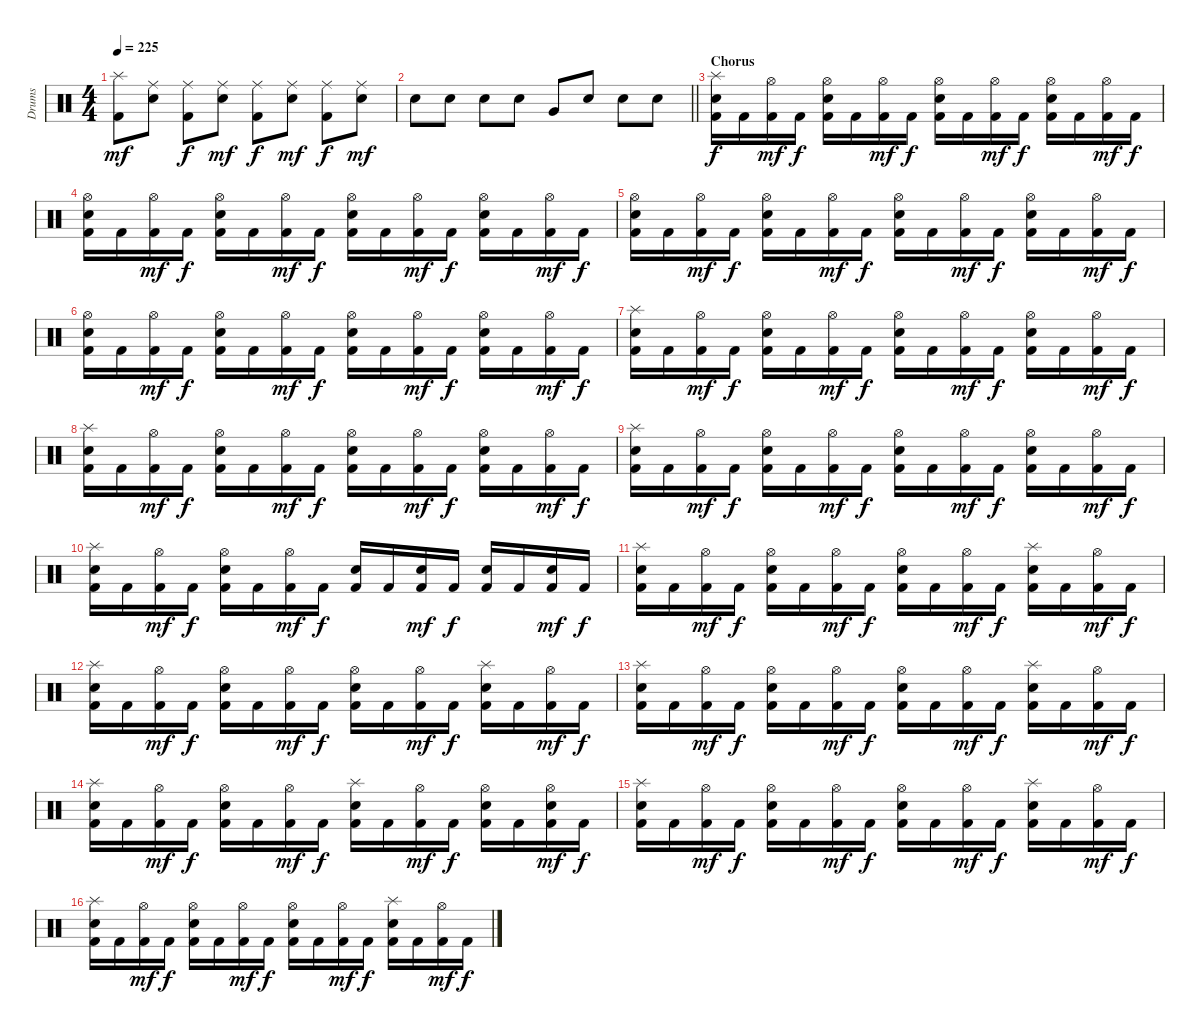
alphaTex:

\track ("Drums" "Drums") {instrument percussion}
\staff {score}
\articulation defaults
\ts (4 4)
\tempo 225
\clef neutral
\ks c
("Splash (hit)" "Kick (hit) 2").8{dy mf} ("Ride (middle)" "Snare (hit) 2").8 ("Ride (middle)" "Kick (hit) 2").8{dy f} ("Ride (middle)" "Snare (hit) 2").8{dy mf} ("Ride (middle)" "Kick (hit) 2").8{dy f} ("Ride (middle)" "Snare (hit) 2").8{dy mf} ("Ride (middle)" "Kick (hit) 2").8{dy f} ("Ride (middle)" "Snare (hit) 2").8{dy mf} |
\barLineRight lightlight "Snare (hit) 2".8 "Snare (hit) 2".8 "Snare (hit) 2".8 "Snare (hit) 2".8 "Very Low Tom (hit)".8 "Snare (hit) 2".8 "Snare (hit) 2".8 "Snare (hit) 2".8
|
\section ("" "Chorus")
("Splash (hit)" "Snare (hit) 2" "Kick (hit) 2").16{dy f} "Kick (hit) 2".16 ("Hi-Hat (open)" "Kick (hit) 2").16{dy mf} "Kick (hit) 2".16{dy f} ("Hi-Hat (open)" "Snare (hit) 2" "Kick (hit) 2").16 "Kick (hit) 2".16 ("Hi-Hat (open)" "Kick (hit) 2").16{dy mf} "Kick (hit) 2".16{dy f} ("Hi-Hat (open)" "Snare (hit) 2" "Kick (hit) 2").16 "Kick (hit) 2".16 ("Hi-Hat (open)" "Kick (hit) 2").16{dy mf} "Kick (hit) 2".16{dy f} ("Hi-Hat (open)" "Snare (hit) 2" "Kick (hit) 2").16 "Kick (hit) 2".16 ("Hi-Hat (open)" "Kick (hit) 2").16{dy mf} "Kick (hit) 2".16{dy f} |
("Hi-Hat (open)" "Snare (hit) 2" "Kick (hit) 2").16 "Kick (hit) 2".16 ("Hi-Hat (open)" "Kick (hit) 2").16{dy mf} "Kick (hit) 2".16{dy f} ("Hi-Hat (open)" "Snare (hit) 2" "Kick (hit) 2").16 "Kick (hit) 2".16 ("Hi-Hat (open)" "Kick (hit) 2").16{dy mf} "Kick (hit) 2".16{dy f} ("Hi-Hat (open)" "Snare (hit) 2" "Kick (hit) 2").16 "Kick (hit) 2".16 ("Hi-Hat (open)" "Kick (hit) 2").16{dy mf} "Kick (hit) 2".16{dy f} ("Hi-Hat (open)" "Snare (hit) 2" "Kick (hit) 2").16 "Kick (hit) 2".16 ("Hi-Hat (open)" "Kick (hit) 2").16{dy mf} "Kick (hit) 2".16{dy f} |
("Hi-Hat (open)" "Snare (hit) 2" "Kick (hit) 2").16 "Kick (hit) 2".16 ("Hi-Hat (open)" "Kick (hit) 2").16{dy mf} "Kick (hit) 2".16{dy f} ("Hi-Hat (open)" "Snare (hit) 2" "Kick (hit) 2").16 "Kick (hit) 2".16 ("Hi-Hat (open)" "Kick (hit) 2").16{dy mf} "Kick (hit) 2".16{dy f} ("Hi-Hat (open)" "Snare (hit) 2" "Kick (hit) 2").16 "Kick (hit) 2".16 ("Hi-Hat (open)" "Kick (hit) 2").16{dy mf} "Kick (hit) 2".16{dy f} ("Hi-Hat (open)" "Snare (hit) 2" "Kick (hit) 2").16 "Kick (hit) 2".16 ("Hi-Hat (open)" "Kick (hit) 2").16{dy mf} "Kick (hit) 2".16{dy f} |
("Hi-Hat (open)" "Snare (hit) 2" "Kick (hit) 2").16 "Kick (hit) 2".16 ("Hi-Hat (open)" "Kick (hit) 2").16{dy mf} "Kick (hit) 2".16{dy f} ("Hi-Hat (open)" "Snare (hit) 2" "Kick (hit) 2").16 "Kick (hit) 2".16 ("Hi-Hat (open)" "Kick (hit) 2").16{dy mf} "Kick (hit) 2".16{dy f} ("Hi-Hat (open)" "Snare (hit) 2" "Kick (hit) 2").16 "Kick (hit) 2".16 ("Hi-Hat (open)" "Kick (hit) 2").16{dy mf} "Kick (hit) 2".16{dy f} ("Hi-Hat (open)" "Snare (hit) 2" "Kick (hit) 2").16 "Kick (hit) 2".16 ("Hi-Hat (open)" "Kick (hit) 2").16{dy mf} "Kick (hit) 2".16{dy f} |
("Splash (hit)" "Snare (hit) 2" "Kick (hit) 2").16 "Kick (hit) 2".16 ("Hi-Hat (open)" "Kick (hit) 2").16{dy mf} "Kick (hit) 2".16{dy f} ("Hi-Hat (open)" "Snare (hit) 2" "Kick (hit) 2").16 "Kick (hit) 2".16 ("Hi-Hat (open)" "Kick (hit) 2").16{dy mf} "Kick (hit) 2".16{dy f} ("Hi-Hat (open)" "Snare (hit) 2" "Kick (hit) 2").16 "Kick (hit) 2".16 ("Hi-Hat (open)" "Kick (hit) 2").16{dy mf} "Kick (hit) 2".16{dy f} ("Hi-Hat (open)" "Snare (hit) 2" "Kick (hit) 2").16 "Kick (hit) 2".16 ("Hi-Hat (open)" "Kick (hit) 2").16{dy mf} "Kick (hit) 2".16{dy f} |
("Splash (hit)" "Snare (hit) 2" "Kick (hit) 2").16 "Kick (hit) 2".16 ("Hi-Hat (open)" "Kick (hit) 2").16{dy mf} "Kick (hit) 2".16{dy f} ("Hi-Hat (open)" "Snare (hit) 2" "Kick (hit) 2").16 "Kick (hit) 2".16 ("Hi-Hat (open)" "Kick (hit) 2").16{dy mf} "Kick (hit) 2".16{dy f} ("Hi-Hat (open)" "Snare (hit) 2" "Kick (hit) 2").16 "Kick (hit) 2".16 ("Hi-Hat (open)" "Kick (hit) 2").16{dy mf} "Kick (hit) 2".16{dy f} ("Hi-Hat (open)" "Snare (hit) 2" "Kick (hit) 2").16 "Kick (hit) 2".16 ("Hi-Hat (open)" "Kick (hit) 2").16{dy mf} "Kick (hit) 2".16{dy f} |
("Splash (hit)" "Snare (hit) 2" "Kick (hit) 2").16 "Kick (hit) 2".16 ("Hi-Hat (open)" "Kick (hit) 2").16{dy mf} "Kick (hit) 2".16{dy f} ("Hi-Hat (open)" "Snare (hit) 2" "Kick (hit) 2").16 "Kick (hit) 2".16 ("Hi-Hat (open)" "Kick (hit) 2").16{dy mf} "Kick (hit) 2".16{dy f} ("Hi-Hat (open)" "Snare (hit) 2" "Kick (hit) 2").16 "Kick (hit) 2".16 ("Hi-Hat (open)" "Kick (hit) 2").16{dy mf} "Kick (hit) 2".16{dy f} ("Hi-Hat (open)" "Snare (hit) 2" "Kick (hit) 2").16 "Kick (hit) 2".16 ("Hi-Hat (open)" "Kick (hit) 2").16{dy mf} "Kick (hit) 2".16{dy f} |
("Splash (hit)" "Snare (hit) 2" "Kick (hit) 2").16 "Kick (hit) 2".16 ("Hi-Hat (open)" "Kick (hit) 2").16{dy mf} "Kick (hit) 2".16{dy f} ("Hi-Hat (open)" "Snare (hit) 2" "Kick (hit) 2").16 "Kick (hit) 2".16 ("Hi-Hat (open)" "Kick (hit) 2").16{dy mf} "Kick (hit) 2".16{dy f} ("Snare (hit) 2" "Kick (hit) 2").16 "Kick (hit) 2".16 ("Snare (hit) 2" "Kick (hit) 2").16{dy mf} "Kick (hit) 2".16{dy f} ("Snare (hit) 2" "Kick (hit) 2").16 "Kick (hit) 2".16 ("Snare (hit) 2" "Kick (hit) 2").16{dy mf} "Kick (hit) 2".16{dy f} |
("Splash (hit)" "Snare (hit) 2" "Kick (hit) 2").16 "Kick (hit) 2".16 ("Hi-Hat (open)" "Kick (hit) 2").16{dy mf} "Kick (hit) 2".16{dy f} ("Hi-Hat (open)" "Snare (hit) 2" "Kick (hit) 2").16 "Kick (hit) 2".16 ("Hi-Hat (open)" "Kick (hit) 2").16{dy mf} "Kick (hit) 2".16{dy f} ("Hi-Hat (open)" "Snare (hit) 2" "Kick (hit) 2").16 "Kick (hit) 2".16 ("Hi-Hat (open)" "Kick (hit) 2").16{dy mf} "Kick (hit) 2".16{dy f} ("Splash (hit)" "Snare (hit) 2" "Kick (hit) 2").16 "Kick (hit) 2".16 ("Hi-Hat (open)" "Kick (hit) 2").16{dy mf} "Kick (hit) 2".16{dy f} |
("Splash (hit)" "Snare (hit) 2" "Kick (hit) 2").16 "Kick (hit) 2".16 ("Hi-Hat (open)" "Kick (hit) 2").16{dy mf} "Kick (hit) 2".16{dy f} ("Hi-Hat (open)" "Snare (hit) 2" "Kick (hit) 2").16 "Kick (hit) 2".16 ("Hi-Hat (open)" "Kick (hit) 2").16{dy mf} "Kick (hit) 2".16{dy f} ("Hi-Hat (open)" "Snare (hit) 2" "Kick (hit) 2").16 "Kick (hit) 2".16 ("Hi-Hat (open)" "Kick (hit) 2").16{dy mf} "Kick (hit) 2".16{dy f} ("Splash (hit)" "Snare (hit) 2" "Kick (hit) 2").16 "Kick (hit) 2".16 ("Hi-Hat (open)" "Kick (hit) 2").16{dy mf} "Kick (hit) 2".16{dy f} |
("Splash (hit)" "Snare (hit) 2" "Kick (hit) 2").16 "Kick (hit) 2".16 ("Hi-Hat (open)" "Kick (hit) 2").16{dy mf} "Kick (hit) 2".16{dy f} ("Hi-Hat (open)" "Snare (hit) 2" "Kick (hit) 2").16 "Kick (hit) 2".16 ("Hi-Hat (open)" "Kick (hit) 2").16{dy mf} "Kick (hit) 2".16{dy f} ("Hi-Hat (open)" "Snare (hit) 2" "Kick (hit) 2").16 "Kick (hit) 2".16 ("Hi-Hat (open)" "Kick (hit) 2").16{dy mf} "Kick (hit) 2".16{dy f} ("Splash (hit)" "Snare (hit) 2" "Kick (hit) 2").16 "Kick (hit) 2".16 ("Hi-Hat (open)" "Kick (hit) 2").16{dy mf} "Kick (hit) 2".16{dy f} |
("Splash (hit)" "Snare (hit) 2" "Kick (hit) 2").16 "Kick (hit) 2".16 ("Hi-Hat (open)" "Kick (hit) 2").16{dy mf} "Kick (hit) 2".16{dy f} ("Hi-Hat (open)" "Snare (hit) 2" "Kick (hit) 2").16 "Kick (hit) 2".16 ("Hi-Hat (open)" "Kick (hit) 2").16{dy mf} "Kick (hit) 2".16{dy f} ("Splash (hit)" "Snare (hit) 2" "Kick (hit) 2").16 "Kick (hit) 2".16 ("Hi-Hat (open)" "Kick (hit) 2").16{dy mf} "Kick (hit) 2".16{dy f} ("Hi-Hat (open)" "Snare (hit) 2" "Kick (hit) 2").16 "Kick (hit) 2".16 ("Hi-Hat (open)" "Snare (hit) 2" "Kick (hit) 2").16{dy mf} "Kick (hit) 2".16{dy f} |
("Splash (hit)" "Snare (hit) 2" "Kick (hit) 2").16 "Kick (hit) 2".16 ("Hi-Hat (open)" "Kick (hit) 2").16{dy mf} "Kick (hit) 2".16{dy f} ("Hi-Hat (open)" "Snare (hit) 2" "Kick (hit) 2").16 "Kick (hit) 2".16 ("Hi-Hat (open)" "Kick (hit) 2").16{dy mf} "Kick (hit) 2".16{dy f} ("Hi-Hat (open)" "Snare (hit) 2" "Kick (hit) 2").16 "Kick (hit) 2".16 ("Hi-Hat (open)" "Kick (hit) 2").16{dy mf} "Kick (hit) 2".16{dy f} ("Splash (hit)" "Snare (hit) 2" "Kick (hit) 2").16 "Kick (hit) 2".16 ("Hi-Hat (open)" "Kick (hit) 2").16{dy mf} "Kick (hit) 2".16{dy f} |
("Splash (hit)" "Snare (hit) 2" "Kick (hit) 2").16 "Kick (hit) 2".16 ("Hi-Hat (open)" "Kick (hit) 2").16{dy mf} "Kick (hit) 2".16{dy f} ("Hi-Hat (open)" "Snare (hit) 2" "Kick (hit) 2").16 "Kick (hit) 2".16 ("Hi-Hat (open)" "Kick (hit) 2").16{dy mf} "Kick (hit) 2".16{dy f} ("Hi-Hat (open)" "Snare (hit) 2" "Kick (hit) 2").16 "Kick (hit) 2".16 ("Hi-Hat (open)" "Kick (hit) 2").16{dy mf} "Kick (hit) 2".16{dy f} ("Splash (hit)" "Snare (hit) 2" "Kick (hit) 2").16 "Kick (hit) 2".16 ("Hi-Hat (open)" "Kick (hit) 2").16{dy mf} "Kick (hit) 2".16{dy f}
